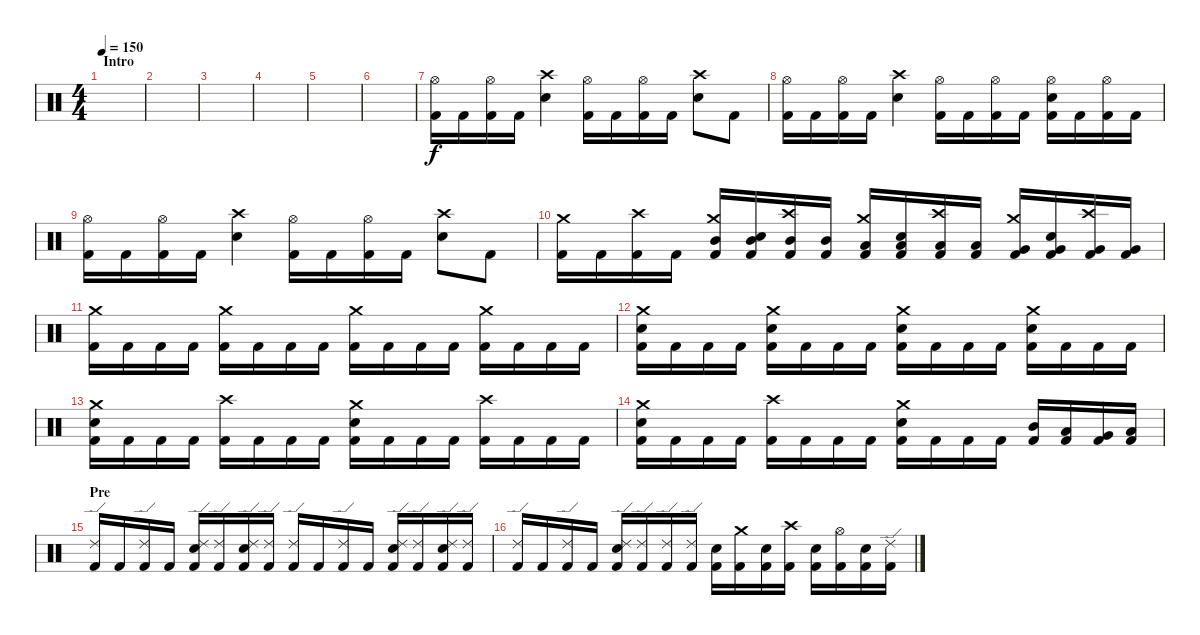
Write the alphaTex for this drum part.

\track "" {instrument percussion}
\staff {score}
\articulation defaults
\ts (4 4)
\section ("" "Intro")
\tempo 150
\clef neutral
\ks c
|
|
|
|
|
|
("Hi-Hat (open)" "Kick (hit) 2").16 "Kick (hit) 2".16 ("Hi-Hat (open)" "Kick (hit) 2").16 "Kick (hit) 2".16 ("Crash high (hit)" "Electric Snare (hit)").4 ("Hi-Hat (open)" "Kick (hit) 2").16 "Kick (hit) 2".16 ("Hi-Hat (open)" "Kick (hit) 2").16 "Kick (hit) 2".16 ("Crash high (hit)" "Electric Snare (hit)").8 "Kick (hit) 2".8 |
("Hi-Hat (open)" "Kick (hit) 2").16 "Kick (hit) 2".16 ("Hi-Hat (open)" "Kick (hit) 2").16 "Kick (hit) 2".16 ("Crash high (hit)" "Electric Snare (hit)").4 ("Hi-Hat (open)" "Kick (hit) 2").16 "Kick (hit) 2".16 ("Hi-Hat (open)" "Kick (hit) 2").16 "Kick (hit) 2".16 ("Hi-Hat (open)" "Electric Snare (hit)" "Kick (hit) 2").16 "Kick (hit) 2".16 ("Hi-Hat (open)" "Kick (hit) 2").16 "Kick (hit) 2".16 |
("Hi-Hat (open)" "Kick (hit) 2").16 "Kick (hit) 2".16 ("Hi-Hat (open)" "Kick (hit) 2").16 "Kick (hit) 2".16 ("Crash high (hit)" "Electric Snare (hit)").4 ("Hi-Hat (open)" "Kick (hit) 2").16 "Kick (hit) 2".16 ("Hi-Hat (open)" "Kick (hit) 2").16 "Kick (hit) 2".16 ("Crash high (hit)" "Electric Snare (hit)").8 "Kick (hit) 2".8 |
("Crash medium (hit)" "Kick (hit) 2").16 "Kick (hit) 2".16 ("Crash high (hit)" "Kick (hit) 2").16 "Kick (hit) 2".16 ("Crash medium (hit)" "Mid Tom (hit)" "Kick (hit) 2").16 ("Electric Snare (hit)" "Mid Tom (hit)" "Kick (hit) 2").16 ("Crash high (hit)" "Mid Tom (hit)" "Kick (hit) 2").16 ("Mid Tom (hit)" "Kick (hit) 2").16 ("Crash medium (hit)" "Low Tom (hit)" "Kick (hit) 2").16 ("Electric Snare (hit)" "Low Tom (hit)" "Kick (hit) 2").16 ("Crash high (hit)" "Low Tom (hit)" "Kick (hit) 2").16 ("Low Tom (hit)" "Kick (hit) 2").16 ("Crash medium (hit)" "Very Low Tom (hit)" "Kick (hit) 2").16 ("Electric Snare (hit)" "Very Low Tom (hit)" "Kick (hit) 2").16 ("Crash high (hit)" "Very Low Tom (hit)" "Kick (hit) 2").16 ("Very Low Tom (hit)" "Kick (hit) 2").16 |
("Crash medium (hit)" "Kick (hit) 2").16 "Kick (hit) 2".16 "Kick (hit) 2".16 "Kick (hit) 2".16 ("Crash medium (hit)" "Kick (hit) 2").16 "Kick (hit) 2".16 "Kick (hit) 2".16 "Kick (hit) 2".16 ("Crash medium (hit)" "Kick (hit) 2").16 "Kick (hit) 2".16 "Kick (hit) 2".16 "Kick (hit) 2".16 ("Crash medium (hit)" "Kick (hit) 2").16 "Kick (hit) 2".16 "Kick (hit) 2".16 "Kick (hit) 2".16 |
("Crash medium (hit)" "Electric Snare (hit)" "Kick (hit) 2").16 "Kick (hit) 2".16 "Kick (hit) 2".16 "Kick (hit) 2".16 ("Crash medium (hit)" "Electric Snare (hit)" "Kick (hit) 2").16 "Kick (hit) 2".16 "Kick (hit) 2".16 "Kick (hit) 2".16 ("Crash medium (hit)" "Electric Snare (hit)" "Kick (hit) 2").16 "Kick (hit) 2".16 "Kick (hit) 2".16 "Kick (hit) 2".16 ("Crash medium (hit)" "Electric Snare (hit)" "Kick (hit) 2").16 "Kick (hit) 2".16 "Kick (hit) 2".16 "Kick (hit) 2".16 |
("Crash medium (hit)" "Electric Snare (hit)" "Kick (hit) 2").16 "Kick (hit) 2".16 "Kick (hit) 2".16 "Kick (hit) 2".16 ("Crash high (hit)" "Kick (hit) 2").16 "Kick (hit) 2".16 "Kick (hit) 2".16 "Kick (hit) 2".16 ("Crash medium (hit)" "Electric Snare (hit)" "Kick (hit) 2").16 "Kick (hit) 2".16 "Kick (hit) 2".16 "Kick (hit) 2".16 ("Crash high (hit)" "Kick (hit) 2").16 "Kick (hit) 2".16 "Kick (hit) 2".16 "Kick (hit) 2".16 |
("Crash medium (hit)" "Electric Snare (hit)" "Kick (hit) 2").16 "Kick (hit) 2".16 "Kick (hit) 2".16 "Kick (hit) 2".16 ("Crash high (hit)" "Kick (hit) 2").16 "Kick (hit) 2".16 "Kick (hit) 2".16 "Kick (hit) 2".16 ("Crash medium (hit)" "Electric Snare (hit)" "Kick (hit) 2").16 "Kick (hit) 2".16 "Kick (hit) 2".16 "Kick (hit) 2".16 ("Mid Tom (hit)" "Kick (hit) 2").16 ("Low Tom (hit)" "Kick (hit) 2").16 ("Very Low Tom (hit)" "Kick (hit) 2").16 ("Low Floor Tom (hit)" "Kick (hit) 2").16 |
\section ("" "Pre")
("Ride (edge) 2" "Kick (hit) 2").16 "Kick (hit) 2".16 ("Ride (edge) 2" "Kick (hit) 2").16 "Kick (hit) 2".16 ("Ride (edge) 2" "Electric Snare (hit)" "Kick (hit) 2").16 ("Ride (edge) 2" "Kick (hit) 2").16 ("Ride (edge) 2" "Electric Snare (hit)" "Kick (hit) 2").16 ("Ride (edge) 2" "Kick (hit) 2").16 ("Ride (edge) 2" "Kick (hit) 2").16 "Kick (hit) 2".16 ("Ride (edge) 2" "Kick (hit) 2").16 "Kick (hit) 2".16 ("Ride (edge) 2" "Electric Snare (hit)" "Kick (hit) 2").16 ("Ride (edge) 2" "Kick (hit) 2").16 ("Ride (edge) 2" "Electric Snare (hit)" "Kick (hit) 2").16 ("Ride (edge) 2" "Kick (hit) 2").16 |
("Ride (edge) 2" "Kick (hit) 2").16 "Kick (hit) 2".16 ("Ride (edge) 2" "Kick (hit) 2").16 "Kick (hit) 2".16 ("Ride (edge) 2" "Electric Snare (hit)" "Kick (hit) 2").16 ("Ride (edge) 2" "Kick (hit) 2").16 ("Ride (edge) 2" "Kick (hit) 2").16 ("Ride (edge) 2" "Kick (hit) 2").16 ("Electric Snare (hit)" "Kick (hit) 2").16 ("Crash medium (hit)" "Kick (hit) 2").16 ("Electric Snare (hit)" "Kick (hit) 2").16 ("Crash high (hit)" "Kick (hit) 2").16 ("Electric Snare (hit)" "Kick (hit) 2").16 ("Hi-Hat (open)" "Kick (hit) 2").16 ("Electric Snare (hit)" "Kick (hit) 2").16 ("Ride (edge) 2" "Kick (hit) 2").16
